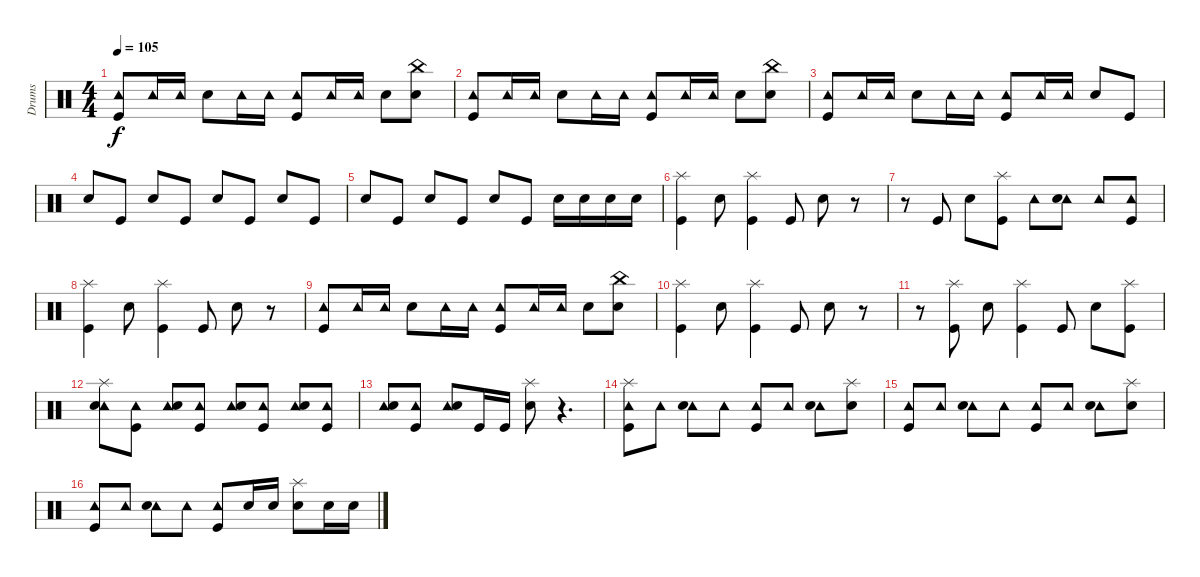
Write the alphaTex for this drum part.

\track ("Drums" "Drums") {instrument percussion}
\staff {score}
\articulation defaults
\ts (4 4)
\tempo 105
\clef neutral
\ks c
("Tambourine (hit)" "Kick (hit)").8{dy f} "Tambourine (hit)".16 "Tambourine (hit)".16 "Snare (hit) 2".8 "Tambourine (hit)".16 "Tambourine (hit)".16 ("Tambourine (hit)" "Kick (hit)").8 "Tambourine (hit)".16 "Tambourine (hit)".16 "Snare (hit) 2".8 ("China (hit)" "Snare (hit) 2").8 |
("Tambourine (hit)" "Kick (hit)").8 "Tambourine (hit)".16 "Tambourine (hit)".16 "Snare (hit) 2".8 "Tambourine (hit)".16 "Tambourine (hit)".16 ("Tambourine (hit)" "Kick (hit)").8 "Tambourine (hit)".16 "Tambourine (hit)".16 "Snare (hit) 2".8 ("China (hit)" "Snare (hit) 2").8 |
("Tambourine (hit)" "Kick (hit)").8 "Tambourine (hit)".16 "Tambourine (hit)".16 "Snare (hit) 2".8 "Tambourine (hit)".16 "Tambourine (hit)".16 ("Tambourine (hit)" "Kick (hit)").8 "Tambourine (hit)".16 "Tambourine (hit)".16 "Snare (hit) 2".8 "Kick (hit)".8 |
"Snare (hit) 2".8 "Kick (hit)".8 "Snare (hit) 2".8 "Kick (hit)".8 "Snare (hit) 2".8 "Kick (hit)".8 "Snare (hit) 2".8 "Kick (hit)".8 |
"Snare (hit) 2".8 "Kick (hit)".8 "Snare (hit) 2".8 "Kick (hit)".8 "Snare (hit) 2".8 "Kick (hit)".8 "Snare (hit) 2".16 "Snare (hit) 2".16 "Snare (hit) 2".16 "Snare (hit) 2".16 |
("Kick (hit)" "Splash (hit)").4 "Snare (hit) 2".8 ("Kick (hit)" "Splash (hit)").4 "Kick (hit)".8 "Snare (hit) 2".8 r.8 |
r.8 "Kick (hit)".8 "Snare (hit) 2".8 ("Kick (hit)" "Splash (hit)").8 "Tambourine (hit)".8 ("Tambourine (hit)" "Snare (hit) 2").8 "Tambourine (hit)".8 ("Tambourine (hit)" "Kick (hit)").8 |
("Kick (hit)" "Splash (hit)").4 "Snare (hit) 2".8 ("Kick (hit)" "Splash (hit)").4 "Kick (hit)".8 "Snare (hit) 2".8 r.8 |
("Tambourine (hit)" "Kick (hit)").8 "Tambourine (hit)".16 "Tambourine (hit)".16 "Snare (hit) 2".8 "Tambourine (hit)".16 "Tambourine (hit)".16 ("Tambourine (hit)" "Kick (hit)").8 "Tambourine (hit)".16 "Tambourine (hit)".16 "Snare (hit) 2".8 ("China (hit)" "Snare (hit) 2").8 |
("Kick (hit)" "Splash (hit)").4 "Snare (hit) 2".8 ("Kick (hit)" "Splash (hit)").4 "Kick (hit)".8 "Snare (hit) 2".8 r.8 |
r.8 ("Kick (hit)" "Splash (hit)").8 "Snare (hit) 2".8 ("Kick (hit)" "Splash (hit)").4 "Kick (hit)".8 "Snare (hit) 2".8 ("Kick (hit)" "Splash (hit)").8 |
("Tambourine (hit)" "Snare (hit) 2" "Splash (hit)").8 ("Tambourine (hit)" "Kick (hit)").8 ("Tambourine (hit)" "Snare (hit) 2").8 ("Tambourine (hit)" "Kick (hit)").8 ("Tambourine (hit)" "Snare (hit) 2").8 ("Tambourine (hit)" "Kick (hit)").8 ("Tambourine (hit)" "Snare (hit) 2").8 ("Tambourine (hit)" "Kick (hit)").8 |
("Tambourine (hit)" "Snare (hit) 2").8 ("Tambourine (hit)" "Kick (hit)").8 ("Tambourine (hit)" "Snare (hit) 2").8 "Kick (hit)".16 "Kick (hit)".16 ("Snare (hit) 2" "Splash (hit)").8 r.4{d} |
("Tambourine (hit)" "Kick (hit)" "Splash (hit)").8 "Tambourine (hit)".8 ("Tambourine (hit)" "Snare (hit) 2").8 "Tambourine (hit)".8 ("Tambourine (hit)" "Kick (hit)").8 "Tambourine (hit)".8 ("Tambourine (hit)" "Snare (hit) 2").8 ("Splash (hit)" "Snare (hit) 2").8 |
("Tambourine (hit)" "Kick (hit)").8 "Tambourine (hit)".8 ("Tambourine (hit)" "Snare (hit) 2").8 "Tambourine (hit)".8 ("Tambourine (hit)" "Kick (hit)").8 "Tambourine (hit)".8 ("Tambourine (hit)" "Snare (hit) 2").8 ("Splash (hit)" "Snare (hit) 2").8 |
("Tambourine (hit)" "Kick (hit)").8 "Tambourine (hit)".8 ("Tambourine (hit)" "Snare (hit) 2").8 "Tambourine (hit)".8 ("Tambourine (hit)" "Kick (hit)").8 "Snare (hit) 2".16 "Snare (hit) 2".16 ("Splash (hit)" "Snare (hit) 2").8 "Snare (hit) 2".16 "Snare (hit) 2".16
